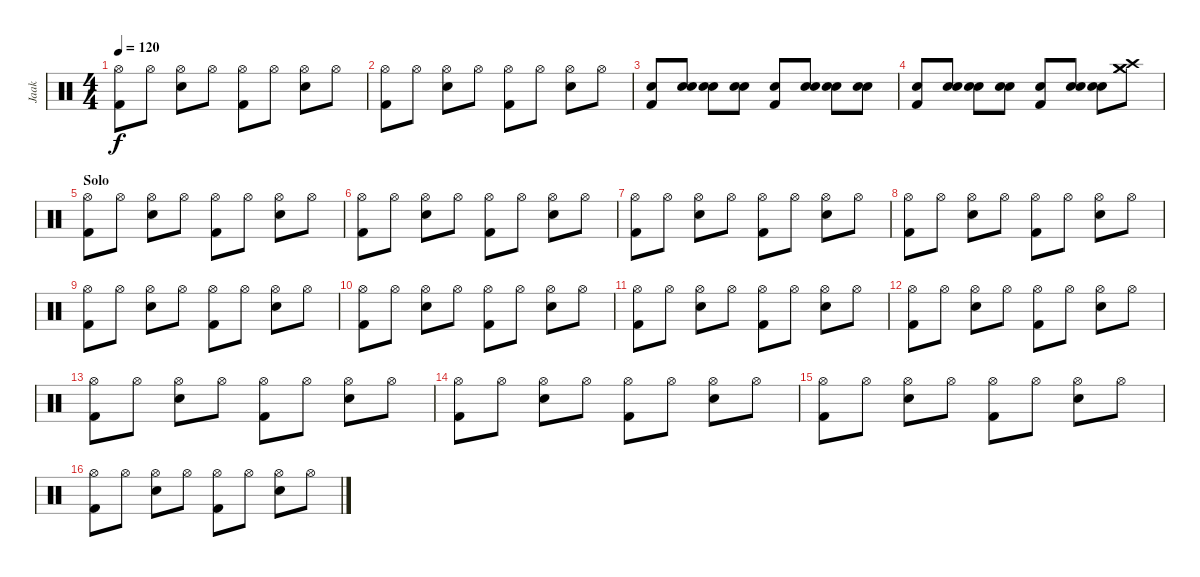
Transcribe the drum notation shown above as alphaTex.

\track ("Jaak" "Jaak") {instrument percussion}
\staff {score}
\articulation defaults
\ts (4 4)
\tempo 120
\clef neutral
\ks c
("Hi-Hat (open)" "Kick (hit) 2").8{dy f} "Hi-Hat (open)".8 ("Hi-Hat (open)" "Snare (hit) 2").8 "Hi-Hat (open)".8 ("Hi-Hat (open)" "Kick (hit) 2").8 "Hi-Hat (open)".8 ("Hi-Hat (open)" "Snare (hit) 2").8 "Hi-Hat (open)".8 |
("Hi-Hat (open)" "Kick (hit) 2").8 "Hi-Hat (open)".8 ("Hi-Hat (open)" "Snare (hit) 2").8 "Hi-Hat (open)".8 ("Hi-Hat (open)" "Kick (hit) 2").8 "Hi-Hat (open)".8 ("Hi-Hat (open)" "Snare (hit) 2").8 "Hi-Hat (open)".8 |
("Snare (hit) 2" "Kick (hit) 2").8 ("Snare (hit) 2" "Snare (hit) 2").8 ("Snare (hit) 2" "Snare (hit) 2").8 ("Snare (hit) 2" "Snare (hit) 2").8 ("Snare (hit) 2" "Kick (hit) 2").8 ("Snare (hit) 2" "Snare (hit) 2").8 ("Snare (hit) 2" "Snare (hit) 2").8 ("Snare (hit) 2" "Snare (hit) 2").8 |
("Snare (hit) 2" "Kick (hit) 2").8 ("Snare (hit) 2" "Snare (hit) 2").8 ("Snare (hit) 2" "Snare (hit) 2").8 ("Snare (hit) 2" "Snare (hit) 2").8 ("Snare (hit) 2" "Kick (hit) 2").8 ("Snare (hit) 2" "Snare (hit) 2").8 ("Snare (hit) 2" "Snare (hit) 2").8 ("Crash high (hit)" "Crash medium (hit)" "Crash medium (hit)").8 |
\section ("" "Solo")
("Hi-Hat (open)" "Kick (hit) 2").8 "Hi-Hat (open)".8 ("Hi-Hat (open)" "Snare (hit) 2").8 "Hi-Hat (open)".8 ("Hi-Hat (open)" "Kick (hit) 2").8 "Hi-Hat (open)".8 ("Hi-Hat (open)" "Snare (hit) 2").8 "Hi-Hat (open)".8 |
("Hi-Hat (open)" "Kick (hit) 2").8 "Hi-Hat (open)".8 ("Hi-Hat (open)" "Snare (hit) 2").8 "Hi-Hat (open)".8 ("Hi-Hat (open)" "Kick (hit) 2").8 "Hi-Hat (open)".8 ("Hi-Hat (open)" "Snare (hit) 2").8 "Hi-Hat (open)".8 |
("Hi-Hat (open)" "Kick (hit) 2").8 "Hi-Hat (open)".8 ("Hi-Hat (open)" "Snare (hit) 2").8 "Hi-Hat (open)".8 ("Hi-Hat (open)" "Kick (hit) 2").8 "Hi-Hat (open)".8 ("Hi-Hat (open)" "Snare (hit) 2").8 "Hi-Hat (open)".8 |
("Hi-Hat (open)" "Kick (hit) 2").8 "Hi-Hat (open)".8 ("Hi-Hat (open)" "Snare (hit) 2").8 "Hi-Hat (open)".8 ("Hi-Hat (open)" "Kick (hit) 2").8 "Hi-Hat (open)".8 ("Hi-Hat (open)" "Snare (hit) 2").8 "Hi-Hat (open)".8 |
("Hi-Hat (open)" "Kick (hit) 2").8 "Hi-Hat (open)".8 ("Hi-Hat (open)" "Snare (hit) 2").8 "Hi-Hat (open)".8 ("Hi-Hat (open)" "Kick (hit) 2").8 "Hi-Hat (open)".8 ("Hi-Hat (open)" "Snare (hit) 2").8 "Hi-Hat (open)".8 |
("Hi-Hat (open)" "Kick (hit) 2").8 "Hi-Hat (open)".8 ("Hi-Hat (open)" "Snare (hit) 2").8 "Hi-Hat (open)".8 ("Hi-Hat (open)" "Kick (hit) 2").8 "Hi-Hat (open)".8 ("Hi-Hat (open)" "Snare (hit) 2").8 "Hi-Hat (open)".8 |
("Hi-Hat (open)" "Kick (hit) 2").8 "Hi-Hat (open)".8 ("Hi-Hat (open)" "Snare (hit) 2").8 "Hi-Hat (open)".8 ("Hi-Hat (open)" "Kick (hit) 2").8 "Hi-Hat (open)".8 ("Hi-Hat (open)" "Snare (hit) 2").8 "Hi-Hat (open)".8 |
("Hi-Hat (open)" "Kick (hit) 2").8 "Hi-Hat (open)".8 ("Hi-Hat (open)" "Snare (hit) 2").8 "Hi-Hat (open)".8 ("Hi-Hat (open)" "Kick (hit) 2").8 "Hi-Hat (open)".8 ("Hi-Hat (open)" "Snare (hit) 2").8 "Hi-Hat (open)".8 |
("Hi-Hat (open)" "Kick (hit) 2").8 "Hi-Hat (open)".8 ("Hi-Hat (open)" "Snare (hit) 2").8 "Hi-Hat (open)".8 ("Hi-Hat (open)" "Kick (hit) 2").8 "Hi-Hat (open)".8 ("Hi-Hat (open)" "Snare (hit) 2").8 "Hi-Hat (open)".8 |
("Hi-Hat (open)" "Kick (hit) 2").8 "Hi-Hat (open)".8 ("Hi-Hat (open)" "Snare (hit) 2").8 "Hi-Hat (open)".8 ("Hi-Hat (open)" "Kick (hit) 2").8 "Hi-Hat (open)".8 ("Hi-Hat (open)" "Snare (hit) 2").8 "Hi-Hat (open)".8 |
("Hi-Hat (open)" "Kick (hit) 2").8 "Hi-Hat (open)".8 ("Hi-Hat (open)" "Snare (hit) 2").8 "Hi-Hat (open)".8 ("Hi-Hat (open)" "Kick (hit) 2").8 "Hi-Hat (open)".8 ("Hi-Hat (open)" "Snare (hit) 2").8 "Hi-Hat (open)".8 |
("Hi-Hat (open)" "Kick (hit) 2").8 "Hi-Hat (open)".8 ("Hi-Hat (open)" "Snare (hit) 2").8 "Hi-Hat (open)".8 ("Hi-Hat (open)" "Kick (hit) 2").8 "Hi-Hat (open)".8 ("Hi-Hat (open)" "Snare (hit) 2").8 "Hi-Hat (open)".8
